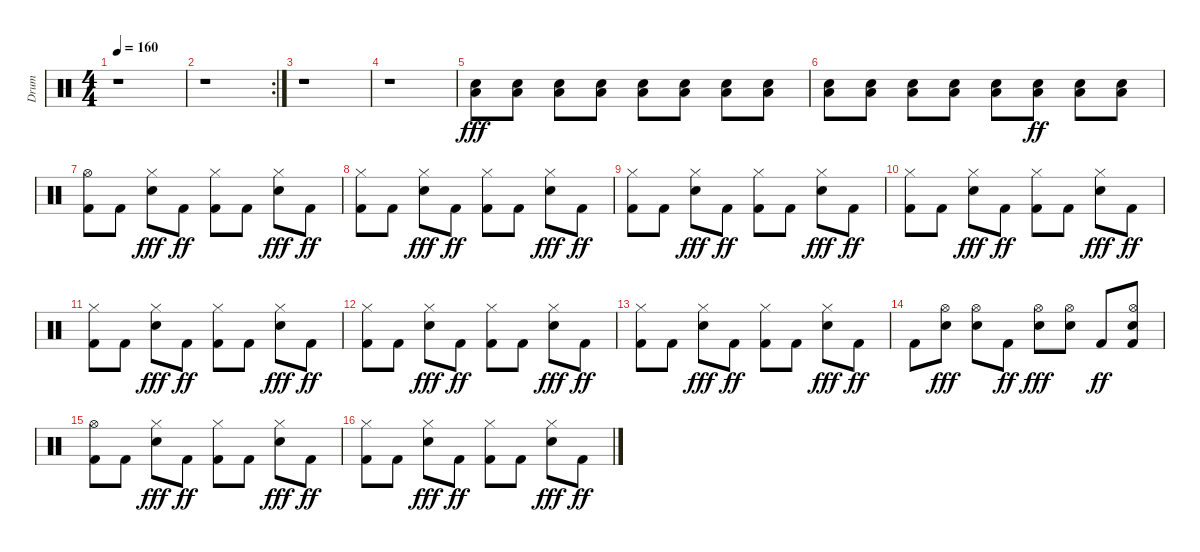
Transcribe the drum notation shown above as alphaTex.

\track ("Drum" "Drum") {instrument percussion}
\staff {score}
\articulation defaults
\ts (4 4)
\tempo 160
\clef neutral
\ks c
r.1{dy fff} |
\rc 2
r.1 |
r.1 |
r.1 |
("Snare (hit) 2" "Low Floor Tom (hit)").8 ("Snare (hit) 2" "Low Floor Tom (hit)").8 ("Snare (hit) 2" "Low Floor Tom (hit)").8 ("Snare (hit) 2" "Low Floor Tom (hit)").8 ("Snare (hit) 2" "Low Floor Tom (hit)").8 ("Snare (hit) 2" "Low Floor Tom (hit)").8 ("Snare (hit) 2" "Low Floor Tom (hit)").8 ("Snare (hit) 2" "Low Floor Tom (hit)").8 |
("Snare (hit) 2" "Low Floor Tom (hit)").8 ("Snare (hit) 2" "Low Floor Tom (hit)").8 ("Snare (hit) 2" "Low Floor Tom (hit)").8 ("Snare (hit) 2" "Low Floor Tom (hit)").8 ("Snare (hit) 2" "Low Floor Tom (hit)").8 ("Snare (hit) 2" "Low Floor Tom (hit)").8{dy ff} ("Snare (hit) 2" "Low Floor Tom (hit)").8 ("Snare (hit) 2" "Low Floor Tom (hit)").8 |
("Hi-Hat (open)" "Kick (hit) 2").8 "Kick (hit) 2".8 ("Hi-Hat (closed)" "Snare (hit) 2").8{dy fff} "Kick (hit) 2".8{dy ff} ("Hi-Hat (closed)" "Kick (hit) 2").8 "Kick (hit) 2".8 ("Hi-Hat (closed)" "Snare (hit) 2").8{dy fff} "Kick (hit) 2".8{dy ff} |
("Hi-Hat (closed)" "Kick (hit) 2").8 "Kick (hit) 2".8 ("Hi-Hat (closed)" "Snare (hit) 2").8{dy fff} "Kick (hit) 2".8{dy ff} ("Hi-Hat (closed)" "Kick (hit) 2").8 "Kick (hit) 2".8 ("Hi-Hat (closed)" "Snare (hit) 2").8{dy fff} "Kick (hit) 2".8{dy ff} |
("Hi-Hat (closed)" "Kick (hit) 2").8 "Kick (hit) 2".8 ("Hi-Hat (closed)" "Snare (hit) 2").8{dy fff} "Kick (hit) 2".8{dy ff} ("Hi-Hat (closed)" "Kick (hit) 2").8 "Kick (hit) 2".8 ("Hi-Hat (closed)" "Snare (hit) 2").8{dy fff} "Kick (hit) 2".8{dy ff} |
("Hi-Hat (closed)" "Kick (hit) 2").8 "Kick (hit) 2".8 ("Hi-Hat (closed)" "Snare (hit) 2").8{dy fff} "Kick (hit) 2".8{dy ff} ("Hi-Hat (closed)" "Kick (hit) 2").8 "Kick (hit) 2".8 ("Hi-Hat (closed)" "Snare (hit) 2").8{dy fff} "Kick (hit) 2".8{dy ff} |
("Hi-Hat (closed)" "Kick (hit) 2").8 "Kick (hit) 2".8 ("Hi-Hat (closed)" "Snare (hit) 2").8{dy fff} "Kick (hit) 2".8{dy ff} ("Hi-Hat (closed)" "Kick (hit) 2").8 "Kick (hit) 2".8 ("Hi-Hat (closed)" "Snare (hit) 2").8{dy fff} "Kick (hit) 2".8{dy ff} |
("Hi-Hat (closed)" "Kick (hit) 2").8 "Kick (hit) 2".8 ("Hi-Hat (closed)" "Snare (hit) 2").8{dy fff} "Kick (hit) 2".8{dy ff} ("Hi-Hat (closed)" "Kick (hit) 2").8 "Kick (hit) 2".8 ("Hi-Hat (closed)" "Snare (hit) 2").8{dy fff} "Kick (hit) 2".8{dy ff} |
("Hi-Hat (closed)" "Kick (hit) 2").8 "Kick (hit) 2".8 ("Hi-Hat (closed)" "Snare (hit) 2").8{dy fff} "Kick (hit) 2".8{dy ff} ("Hi-Hat (closed)" "Kick (hit) 2").8 "Kick (hit) 2".8 ("Hi-Hat (closed)" "Snare (hit) 2").8{dy fff} "Kick (hit) 2".8{dy ff} |
"Kick (hit) 2".8 ("Hi-Hat (open)" "Snare (hit) 2").8{dy fff} ("Hi-Hat (open)" "Snare (hit) 2").8 "Kick (hit) 2".8{dy ff} ("Hi-Hat (open)" "Snare (hit) 2").8{dy fff} ("Hi-Hat (open)" "Snare (hit) 2").8 "Kick (hit) 2".8{dy ff} ("Hi-Hat (open)" "Snare (hit) 2" "Kick (hit) 2").8 |
("Hi-Hat (open)" "Kick (hit) 2").8 "Kick (hit) 2".8 ("Hi-Hat (closed)" "Snare (hit) 2").8{dy fff} "Kick (hit) 2".8{dy ff} ("Hi-Hat (closed)" "Kick (hit) 2").8 "Kick (hit) 2".8 ("Hi-Hat (closed)" "Snare (hit) 2").8{dy fff} "Kick (hit) 2".8{dy ff} |
("Hi-Hat (closed)" "Kick (hit) 2").8 "Kick (hit) 2".8 ("Hi-Hat (closed)" "Snare (hit) 2").8{dy fff} "Kick (hit) 2".8{dy ff} ("Hi-Hat (closed)" "Kick (hit) 2").8 "Kick (hit) 2".8 ("Hi-Hat (closed)" "Snare (hit) 2").8{dy fff} "Kick (hit) 2".8{dy ff}
